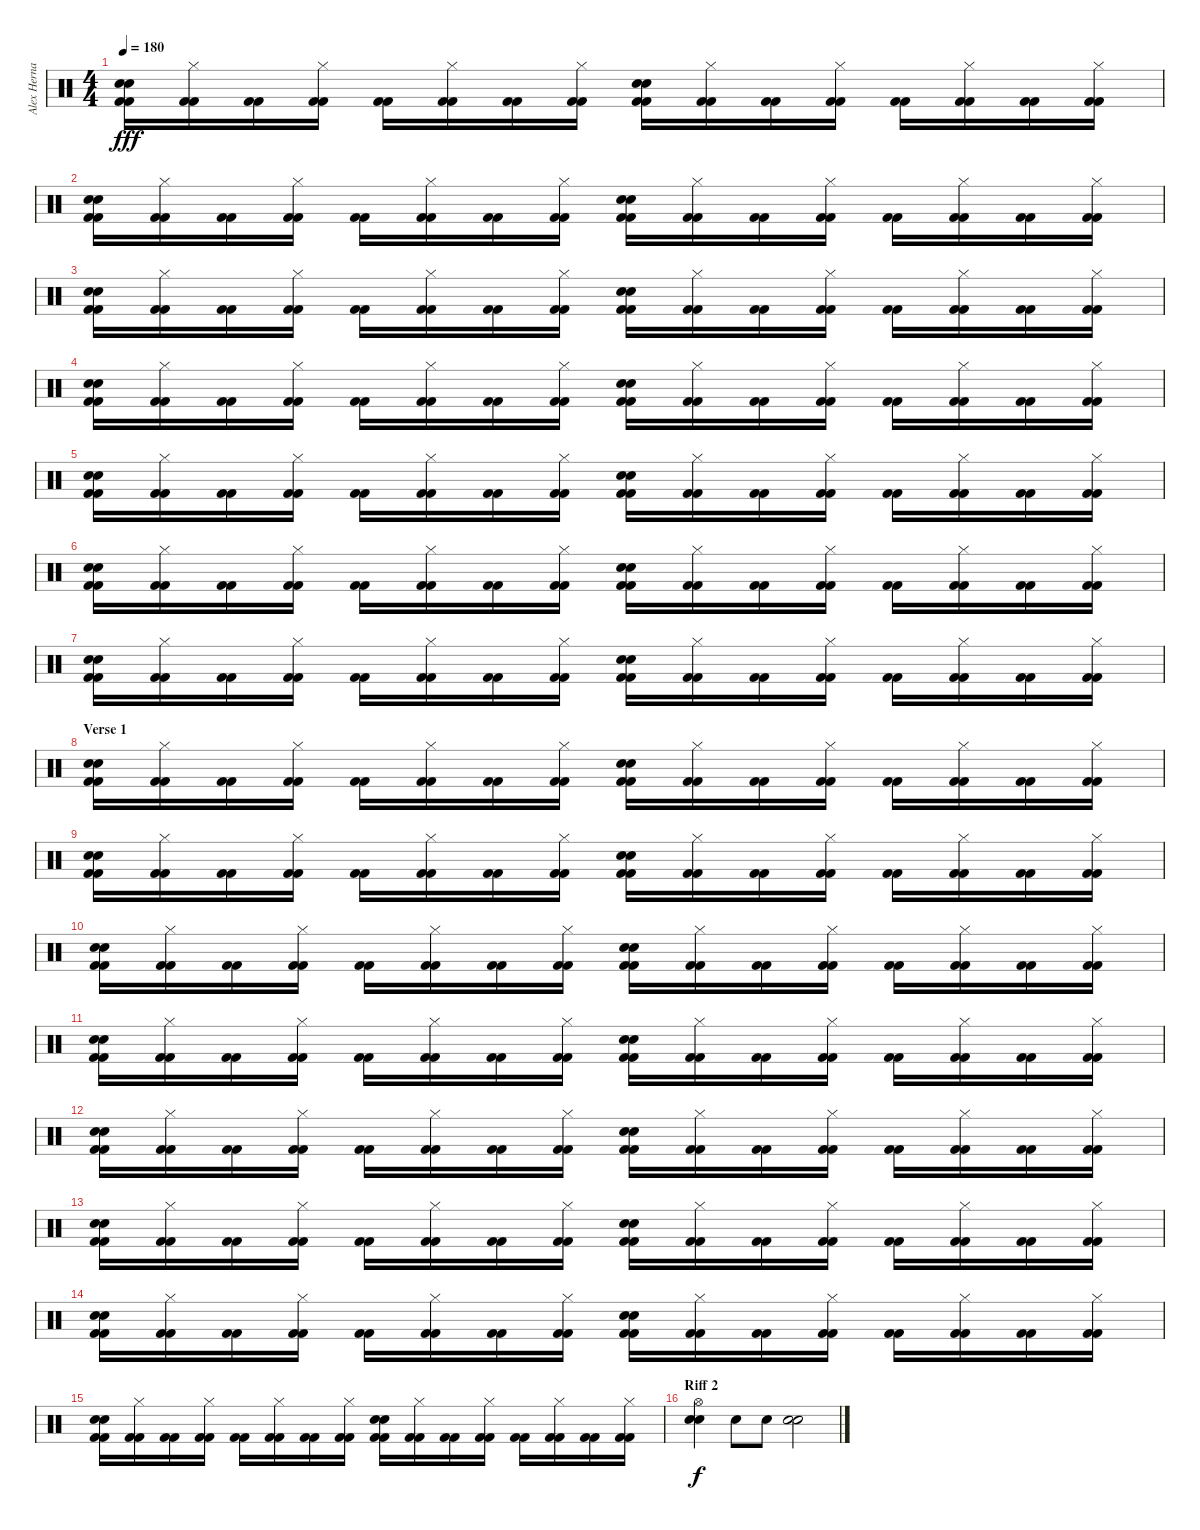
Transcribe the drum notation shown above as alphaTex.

\track ("Alex Hernandez" "Alex Herna") {instrument percussion}
\staff {score}
\articulation defaults
\ts (4 4)
\tempo 180
\clef neutral
\ks c
("Snare (hit) 2" "Snare (hit) 2" "Kick (hit) 2" "Kick (hit) 2").16{dy fff} ("Hi-Hat (closed)" "Kick (hit) 2" "Kick (hit) 2").16 ("Kick (hit) 2" "Kick (hit) 2").16 ("Hi-Hat (closed)" "Kick (hit) 2" "Kick (hit) 2").16 ("Kick (hit) 2" "Kick (hit) 2").16 ("Hi-Hat (closed)" "Kick (hit) 2" "Kick (hit) 2").16 ("Kick (hit) 2" "Kick (hit) 2").16 ("Hi-Hat (closed)" "Kick (hit) 2" "Kick (hit) 2").16 ("Snare (hit) 2" "Snare (hit) 2" "Kick (hit) 2" "Kick (hit) 2").16 ("Hi-Hat (closed)" "Kick (hit) 2" "Kick (hit) 2").16 ("Kick (hit) 2" "Kick (hit) 2").16 ("Hi-Hat (closed)" "Kick (hit) 2" "Kick (hit) 2").16 ("Kick (hit) 2" "Kick (hit) 2").16 ("Hi-Hat (closed)" "Kick (hit) 2" "Kick (hit) 2").16 ("Kick (hit) 2" "Kick (hit) 2").16 ("Hi-Hat (closed)" "Kick (hit) 2" "Kick (hit) 2").16 |
("Snare (hit) 2" "Snare (hit) 2" "Kick (hit) 2" "Kick (hit) 2").16 ("Hi-Hat (closed)" "Kick (hit) 2" "Kick (hit) 2").16 ("Kick (hit) 2" "Kick (hit) 2").16 ("Hi-Hat (closed)" "Kick (hit) 2" "Kick (hit) 2").16 ("Kick (hit) 2" "Kick (hit) 2").16 ("Hi-Hat (closed)" "Kick (hit) 2" "Kick (hit) 2").16 ("Kick (hit) 2" "Kick (hit) 2").16 ("Hi-Hat (closed)" "Kick (hit) 2" "Kick (hit) 2").16 ("Snare (hit) 2" "Snare (hit) 2" "Kick (hit) 2" "Kick (hit) 2").16 ("Hi-Hat (closed)" "Kick (hit) 2" "Kick (hit) 2").16 ("Kick (hit) 2" "Kick (hit) 2").16 ("Hi-Hat (closed)" "Kick (hit) 2" "Kick (hit) 2").16 ("Kick (hit) 2" "Kick (hit) 2").16 ("Hi-Hat (closed)" "Kick (hit) 2" "Kick (hit) 2").16 ("Kick (hit) 2" "Kick (hit) 2").16 ("Hi-Hat (closed)" "Kick (hit) 2" "Kick (hit) 2").16 |
("Snare (hit) 2" "Snare (hit) 2" "Kick (hit) 2" "Kick (hit) 2").16 ("Hi-Hat (closed)" "Kick (hit) 2" "Kick (hit) 2").16 ("Kick (hit) 2" "Kick (hit) 2").16 ("Hi-Hat (closed)" "Kick (hit) 2" "Kick (hit) 2").16 ("Kick (hit) 2" "Kick (hit) 2").16 ("Hi-Hat (closed)" "Kick (hit) 2" "Kick (hit) 2").16 ("Kick (hit) 2" "Kick (hit) 2").16 ("Hi-Hat (closed)" "Kick (hit) 2" "Kick (hit) 2").16 ("Snare (hit) 2" "Snare (hit) 2" "Kick (hit) 2" "Kick (hit) 2").16 ("Hi-Hat (closed)" "Kick (hit) 2" "Kick (hit) 2").16 ("Kick (hit) 2" "Kick (hit) 2").16 ("Hi-Hat (closed)" "Kick (hit) 2" "Kick (hit) 2").16 ("Kick (hit) 2" "Kick (hit) 2").16 ("Hi-Hat (closed)" "Kick (hit) 2" "Kick (hit) 2").16 ("Kick (hit) 2" "Kick (hit) 2").16 ("Hi-Hat (closed)" "Kick (hit) 2" "Kick (hit) 2").16 |
("Snare (hit) 2" "Snare (hit) 2" "Kick (hit) 2" "Kick (hit) 2").16 ("Hi-Hat (closed)" "Kick (hit) 2" "Kick (hit) 2").16 ("Kick (hit) 2" "Kick (hit) 2").16 ("Hi-Hat (closed)" "Kick (hit) 2" "Kick (hit) 2").16 ("Kick (hit) 2" "Kick (hit) 2").16 ("Hi-Hat (closed)" "Kick (hit) 2" "Kick (hit) 2").16 ("Kick (hit) 2" "Kick (hit) 2").16 ("Hi-Hat (closed)" "Kick (hit) 2" "Kick (hit) 2").16 ("Snare (hit) 2" "Snare (hit) 2" "Kick (hit) 2" "Kick (hit) 2").16 ("Hi-Hat (closed)" "Kick (hit) 2" "Kick (hit) 2").16 ("Kick (hit) 2" "Kick (hit) 2").16 ("Hi-Hat (closed)" "Kick (hit) 2" "Kick (hit) 2").16 ("Kick (hit) 2" "Kick (hit) 2").16 ("Hi-Hat (closed)" "Kick (hit) 2" "Kick (hit) 2").16 ("Kick (hit) 2" "Kick (hit) 2").16 ("Hi-Hat (closed)" "Kick (hit) 2" "Kick (hit) 2").16 |
("Snare (hit) 2" "Snare (hit) 2" "Kick (hit) 2" "Kick (hit) 2").16 ("Hi-Hat (closed)" "Kick (hit) 2" "Kick (hit) 2").16 ("Kick (hit) 2" "Kick (hit) 2").16 ("Hi-Hat (closed)" "Kick (hit) 2" "Kick (hit) 2").16 ("Kick (hit) 2" "Kick (hit) 2").16 ("Hi-Hat (closed)" "Kick (hit) 2" "Kick (hit) 2").16 ("Kick (hit) 2" "Kick (hit) 2").16 ("Hi-Hat (closed)" "Kick (hit) 2" "Kick (hit) 2").16 ("Snare (hit) 2" "Snare (hit) 2" "Kick (hit) 2" "Kick (hit) 2").16 ("Hi-Hat (closed)" "Kick (hit) 2" "Kick (hit) 2").16 ("Kick (hit) 2" "Kick (hit) 2").16 ("Hi-Hat (closed)" "Kick (hit) 2" "Kick (hit) 2").16 ("Kick (hit) 2" "Kick (hit) 2").16 ("Hi-Hat (closed)" "Kick (hit) 2" "Kick (hit) 2").16 ("Kick (hit) 2" "Kick (hit) 2").16 ("Hi-Hat (closed)" "Kick (hit) 2" "Kick (hit) 2").16 |
("Snare (hit) 2" "Snare (hit) 2" "Kick (hit) 2" "Kick (hit) 2").16 ("Hi-Hat (closed)" "Kick (hit) 2" "Kick (hit) 2").16 ("Kick (hit) 2" "Kick (hit) 2").16 ("Hi-Hat (closed)" "Kick (hit) 2" "Kick (hit) 2").16 ("Kick (hit) 2" "Kick (hit) 2").16 ("Hi-Hat (closed)" "Kick (hit) 2" "Kick (hit) 2").16 ("Kick (hit) 2" "Kick (hit) 2").16 ("Hi-Hat (closed)" "Kick (hit) 2" "Kick (hit) 2").16 ("Snare (hit) 2" "Snare (hit) 2" "Kick (hit) 2" "Kick (hit) 2").16 ("Hi-Hat (closed)" "Kick (hit) 2" "Kick (hit) 2").16 ("Kick (hit) 2" "Kick (hit) 2").16 ("Hi-Hat (closed)" "Kick (hit) 2" "Kick (hit) 2").16 ("Kick (hit) 2" "Kick (hit) 2").16 ("Hi-Hat (closed)" "Kick (hit) 2" "Kick (hit) 2").16 ("Kick (hit) 2" "Kick (hit) 2").16 ("Hi-Hat (closed)" "Kick (hit) 2" "Kick (hit) 2").16 |
("Snare (hit) 2" "Snare (hit) 2" "Kick (hit) 2" "Kick (hit) 2").16 ("Hi-Hat (closed)" "Kick (hit) 2" "Kick (hit) 2").16 ("Kick (hit) 2" "Kick (hit) 2").16 ("Hi-Hat (closed)" "Kick (hit) 2" "Kick (hit) 2").16 ("Kick (hit) 2" "Kick (hit) 2").16 ("Hi-Hat (closed)" "Kick (hit) 2" "Kick (hit) 2").16 ("Kick (hit) 2" "Kick (hit) 2").16 ("Hi-Hat (closed)" "Kick (hit) 2" "Kick (hit) 2").16 ("Snare (hit) 2" "Snare (hit) 2" "Kick (hit) 2" "Kick (hit) 2").16 ("Hi-Hat (closed)" "Kick (hit) 2" "Kick (hit) 2").16 ("Kick (hit) 2" "Kick (hit) 2").16 ("Hi-Hat (closed)" "Kick (hit) 2" "Kick (hit) 2").16 ("Kick (hit) 2" "Kick (hit) 2").16 ("Hi-Hat (closed)" "Kick (hit) 2" "Kick (hit) 2").16 ("Kick (hit) 2" "Kick (hit) 2").16 ("Hi-Hat (closed)" "Kick (hit) 2" "Kick (hit) 2").16 |
\section ("" "Verse 1")
("Snare (hit) 2" "Snare (hit) 2" "Kick (hit) 2" "Kick (hit) 2").16 ("Hi-Hat (closed)" "Kick (hit) 2" "Kick (hit) 2").16 ("Kick (hit) 2" "Kick (hit) 2").16 ("Hi-Hat (closed)" "Kick (hit) 2" "Kick (hit) 2").16 ("Kick (hit) 2" "Kick (hit) 2").16 ("Hi-Hat (closed)" "Kick (hit) 2" "Kick (hit) 2").16 ("Kick (hit) 2" "Kick (hit) 2").16 ("Hi-Hat (closed)" "Kick (hit) 2" "Kick (hit) 2").16 ("Snare (hit) 2" "Snare (hit) 2" "Kick (hit) 2" "Kick (hit) 2").16 ("Hi-Hat (closed)" "Kick (hit) 2" "Kick (hit) 2").16 ("Kick (hit) 2" "Kick (hit) 2").16 ("Hi-Hat (closed)" "Kick (hit) 2" "Kick (hit) 2").16 ("Kick (hit) 2" "Kick (hit) 2").16 ("Hi-Hat (closed)" "Kick (hit) 2" "Kick (hit) 2").16 ("Kick (hit) 2" "Kick (hit) 2").16 ("Hi-Hat (closed)" "Kick (hit) 2" "Kick (hit) 2").16 |
("Snare (hit) 2" "Snare (hit) 2" "Kick (hit) 2" "Kick (hit) 2").16 ("Hi-Hat (closed)" "Kick (hit) 2" "Kick (hit) 2").16 ("Kick (hit) 2" "Kick (hit) 2").16 ("Hi-Hat (closed)" "Kick (hit) 2" "Kick (hit) 2").16 ("Kick (hit) 2" "Kick (hit) 2").16 ("Hi-Hat (closed)" "Kick (hit) 2" "Kick (hit) 2").16 ("Kick (hit) 2" "Kick (hit) 2").16 ("Hi-Hat (closed)" "Kick (hit) 2" "Kick (hit) 2").16 ("Snare (hit) 2" "Snare (hit) 2" "Kick (hit) 2" "Kick (hit) 2").16 ("Hi-Hat (closed)" "Kick (hit) 2" "Kick (hit) 2").16 ("Kick (hit) 2" "Kick (hit) 2").16 ("Hi-Hat (closed)" "Kick (hit) 2" "Kick (hit) 2").16 ("Kick (hit) 2" "Kick (hit) 2").16 ("Hi-Hat (closed)" "Kick (hit) 2" "Kick (hit) 2").16 ("Kick (hit) 2" "Kick (hit) 2").16 ("Hi-Hat (closed)" "Kick (hit) 2" "Kick (hit) 2").16 |
("Snare (hit) 2" "Snare (hit) 2" "Kick (hit) 2" "Kick (hit) 2").16 ("Hi-Hat (closed)" "Kick (hit) 2" "Kick (hit) 2").16 ("Kick (hit) 2" "Kick (hit) 2").16 ("Hi-Hat (closed)" "Kick (hit) 2" "Kick (hit) 2").16 ("Kick (hit) 2" "Kick (hit) 2").16 ("Hi-Hat (closed)" "Kick (hit) 2" "Kick (hit) 2").16 ("Kick (hit) 2" "Kick (hit) 2").16 ("Hi-Hat (closed)" "Kick (hit) 2" "Kick (hit) 2").16 ("Snare (hit) 2" "Snare (hit) 2" "Kick (hit) 2" "Kick (hit) 2").16 ("Hi-Hat (closed)" "Kick (hit) 2" "Kick (hit) 2").16 ("Kick (hit) 2" "Kick (hit) 2").16 ("Hi-Hat (closed)" "Kick (hit) 2" "Kick (hit) 2").16 ("Kick (hit) 2" "Kick (hit) 2").16 ("Hi-Hat (closed)" "Kick (hit) 2" "Kick (hit) 2").16 ("Kick (hit) 2" "Kick (hit) 2").16 ("Hi-Hat (closed)" "Kick (hit) 2" "Kick (hit) 2").16 |
("Snare (hit) 2" "Snare (hit) 2" "Kick (hit) 2" "Kick (hit) 2").16 ("Hi-Hat (closed)" "Kick (hit) 2" "Kick (hit) 2").16 ("Kick (hit) 2" "Kick (hit) 2").16 ("Hi-Hat (closed)" "Kick (hit) 2" "Kick (hit) 2").16 ("Kick (hit) 2" "Kick (hit) 2").16 ("Hi-Hat (closed)" "Kick (hit) 2" "Kick (hit) 2").16 ("Kick (hit) 2" "Kick (hit) 2").16 ("Hi-Hat (closed)" "Kick (hit) 2" "Kick (hit) 2").16 ("Snare (hit) 2" "Snare (hit) 2" "Kick (hit) 2" "Kick (hit) 2").16 ("Hi-Hat (closed)" "Kick (hit) 2" "Kick (hit) 2").16 ("Kick (hit) 2" "Kick (hit) 2").16 ("Hi-Hat (closed)" "Kick (hit) 2" "Kick (hit) 2").16 ("Kick (hit) 2" "Kick (hit) 2").16 ("Hi-Hat (closed)" "Kick (hit) 2" "Kick (hit) 2").16 ("Kick (hit) 2" "Kick (hit) 2").16 ("Hi-Hat (closed)" "Kick (hit) 2" "Kick (hit) 2").16 |
("Snare (hit) 2" "Snare (hit) 2" "Kick (hit) 2" "Kick (hit) 2").16 ("Hi-Hat (closed)" "Kick (hit) 2" "Kick (hit) 2").16 ("Kick (hit) 2" "Kick (hit) 2").16 ("Hi-Hat (closed)" "Kick (hit) 2" "Kick (hit) 2").16 ("Kick (hit) 2" "Kick (hit) 2").16 ("Hi-Hat (closed)" "Kick (hit) 2" "Kick (hit) 2").16 ("Kick (hit) 2" "Kick (hit) 2").16 ("Hi-Hat (closed)" "Kick (hit) 2" "Kick (hit) 2").16 ("Snare (hit) 2" "Snare (hit) 2" "Kick (hit) 2" "Kick (hit) 2").16 ("Hi-Hat (closed)" "Kick (hit) 2" "Kick (hit) 2").16 ("Kick (hit) 2" "Kick (hit) 2").16 ("Hi-Hat (closed)" "Kick (hit) 2" "Kick (hit) 2").16 ("Kick (hit) 2" "Kick (hit) 2").16 ("Hi-Hat (closed)" "Kick (hit) 2" "Kick (hit) 2").16 ("Kick (hit) 2" "Kick (hit) 2").16 ("Hi-Hat (closed)" "Kick (hit) 2" "Kick (hit) 2").16 |
("Snare (hit) 2" "Snare (hit) 2" "Kick (hit) 2" "Kick (hit) 2").16 ("Hi-Hat (closed)" "Kick (hit) 2" "Kick (hit) 2").16 ("Kick (hit) 2" "Kick (hit) 2").16 ("Hi-Hat (closed)" "Kick (hit) 2" "Kick (hit) 2").16 ("Kick (hit) 2" "Kick (hit) 2").16 ("Hi-Hat (closed)" "Kick (hit) 2" "Kick (hit) 2").16 ("Kick (hit) 2" "Kick (hit) 2").16 ("Hi-Hat (closed)" "Kick (hit) 2" "Kick (hit) 2").16 ("Snare (hit) 2" "Snare (hit) 2" "Kick (hit) 2" "Kick (hit) 2").16 ("Hi-Hat (closed)" "Kick (hit) 2" "Kick (hit) 2").16 ("Kick (hit) 2" "Kick (hit) 2").16 ("Hi-Hat (closed)" "Kick (hit) 2" "Kick (hit) 2").16 ("Kick (hit) 2" "Kick (hit) 2").16 ("Hi-Hat (closed)" "Kick (hit) 2" "Kick (hit) 2").16 ("Kick (hit) 2" "Kick (hit) 2").16 ("Hi-Hat (closed)" "Kick (hit) 2" "Kick (hit) 2").16 |
("Snare (hit) 2" "Snare (hit) 2" "Kick (hit) 2" "Kick (hit) 2").16 ("Hi-Hat (closed)" "Kick (hit) 2" "Kick (hit) 2").16 ("Kick (hit) 2" "Kick (hit) 2").16 ("Hi-Hat (closed)" "Kick (hit) 2" "Kick (hit) 2").16 ("Kick (hit) 2" "Kick (hit) 2").16 ("Hi-Hat (closed)" "Kick (hit) 2" "Kick (hit) 2").16 ("Kick (hit) 2" "Kick (hit) 2").16 ("Hi-Hat (closed)" "Kick (hit) 2" "Kick (hit) 2").16 ("Snare (hit) 2" "Snare (hit) 2" "Kick (hit) 2" "Kick (hit) 2").16 ("Hi-Hat (closed)" "Kick (hit) 2" "Kick (hit) 2").16 ("Kick (hit) 2" "Kick (hit) 2").16 ("Hi-Hat (closed)" "Kick (hit) 2" "Kick (hit) 2").16 ("Kick (hit) 2" "Kick (hit) 2").16 ("Hi-Hat (closed)" "Kick (hit) 2" "Kick (hit) 2").16 ("Kick (hit) 2" "Kick (hit) 2").16 ("Hi-Hat (closed)" "Kick (hit) 2" "Kick (hit) 2").16 |
("Snare (hit) 2" "Snare (hit) 2" "Kick (hit) 2" "Kick (hit) 2").16 ("Hi-Hat (closed)" "Kick (hit) 2" "Kick (hit) 2").16 ("Kick (hit) 2" "Kick (hit) 2").16 ("Hi-Hat (closed)" "Kick (hit) 2" "Kick (hit) 2").16 ("Kick (hit) 2" "Kick (hit) 2").16 ("Hi-Hat (closed)" "Kick (hit) 2" "Kick (hit) 2").16 ("Kick (hit) 2" "Kick (hit) 2").16 ("Hi-Hat (closed)" "Kick (hit) 2" "Kick (hit) 2").16 ("Snare (hit) 2" "Snare (hit) 2" "Kick (hit) 2" "Kick (hit) 2").16 ("Hi-Hat (closed)" "Kick (hit) 2" "Kick (hit) 2").16 ("Kick (hit) 2" "Kick (hit) 2").16 ("Hi-Hat (closed)" "Kick (hit) 2" "Kick (hit) 2").16 ("Kick (hit) 2" "Kick (hit) 2").16 ("Hi-Hat (closed)" "Kick (hit) 2" "Kick (hit) 2").16 ("Kick (hit) 2" "Kick (hit) 2").16 ("Hi-Hat (closed)" "Kick (hit) 2" "Kick (hit) 2").16 |
\section ("" "Riff 2")
("Hi-Hat (open)" "Snare (hit) 2" "Snare (hit) 2").4{dy f} "Snare (hit) 2".8 "Snare (hit) 2".8 ("Snare (hit) 2" "Snare (hit) 2").2
